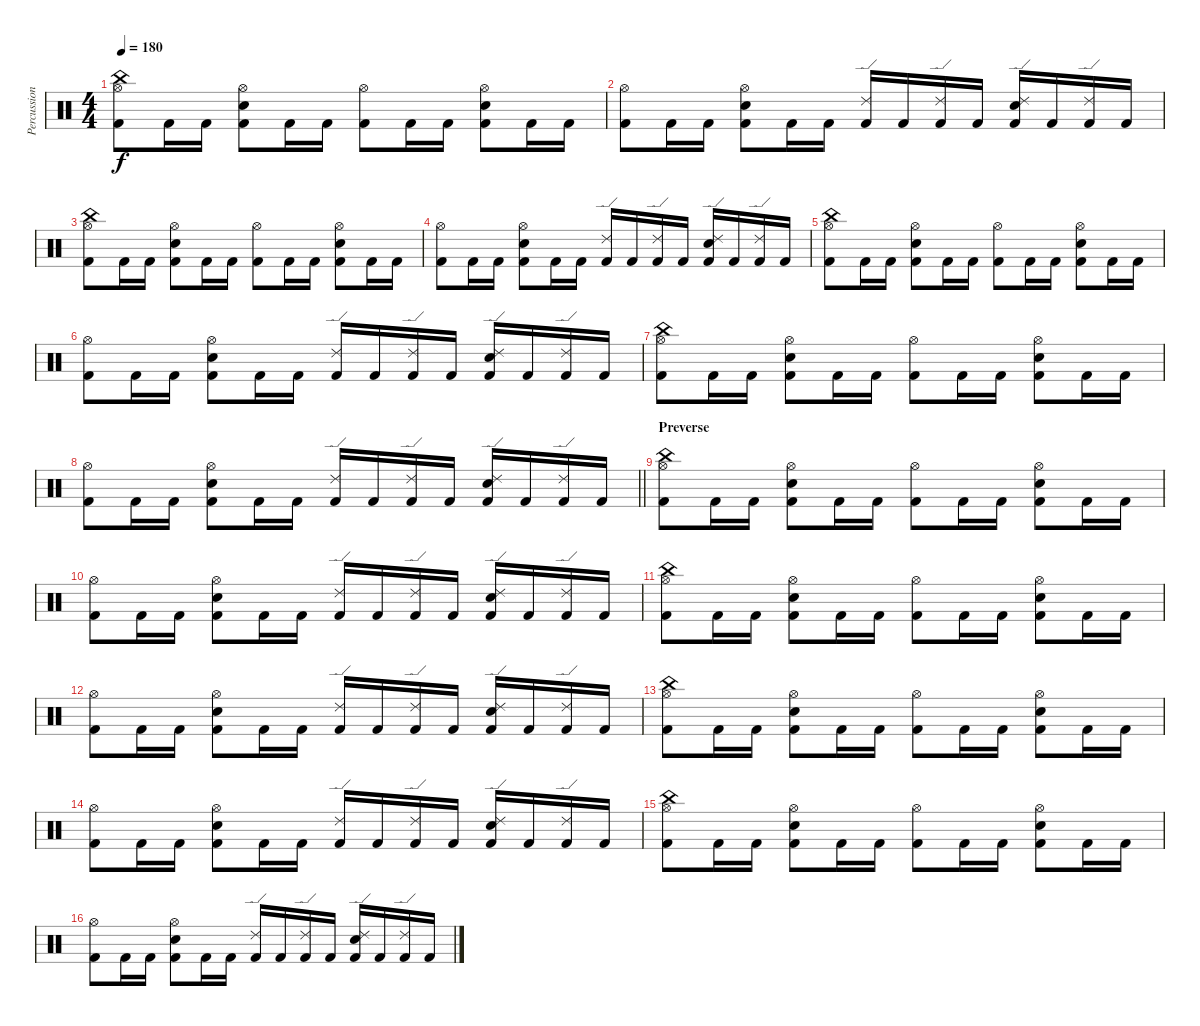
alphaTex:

\track ("Percussion" "Percussion") {instrument percussion}
\staff {score}
\articulation defaults
\ts (4 4)
\tempo 180
\clef neutral
\ks c
("China (hit)" "Hi-Hat (open)" "Kick (hit) 2").8{dy f} "Kick (hit) 2".16 "Kick (hit) 2".16 ("Hi-Hat (open)" "Snare (hit) 2" "Kick (hit) 2").8 "Kick (hit) 2".16 "Kick (hit) 2".16 ("Hi-Hat (open)" "Kick (hit) 2").8 "Kick (hit) 2".16 "Kick (hit) 2".16 ("Hi-Hat (open)" "Snare (hit) 2" "Kick (hit) 2").8 "Kick (hit) 2".16 "Kick (hit) 2".16 |
("Hi-Hat (open)" "Kick (hit) 2").8 "Kick (hit) 2".16 "Kick (hit) 2".16 ("Hi-Hat (open)" "Snare (hit) 2" "Kick (hit) 2").8 "Kick (hit) 2".16 "Kick (hit) 2".16 ("Ride (edge) 2" "Kick (hit) 2").16 "Kick (hit) 2".16 ("Ride (edge) 2" "Kick (hit) 2").16 "Kick (hit) 2".16 ("Ride (edge) 2" "Snare (hit) 2" "Kick (hit) 2").16 "Kick (hit) 2".16 ("Ride (edge) 2" "Kick (hit) 2").16 "Kick (hit) 2".16 |
("China (hit)" "Hi-Hat (open)" "Kick (hit) 2").8 "Kick (hit) 2".16 "Kick (hit) 2".16 ("Hi-Hat (open)" "Snare (hit) 2" "Kick (hit) 2").8 "Kick (hit) 2".16 "Kick (hit) 2".16 ("Hi-Hat (open)" "Kick (hit) 2").8 "Kick (hit) 2".16 "Kick (hit) 2".16 ("Hi-Hat (open)" "Snare (hit) 2" "Kick (hit) 2").8 "Kick (hit) 2".16 "Kick (hit) 2".16 |
("Hi-Hat (open)" "Kick (hit) 2").8 "Kick (hit) 2".16 "Kick (hit) 2".16 ("Hi-Hat (open)" "Snare (hit) 2" "Kick (hit) 2").8 "Kick (hit) 2".16 "Kick (hit) 2".16 ("Ride (edge) 2" "Kick (hit) 2").16 "Kick (hit) 2".16 ("Ride (edge) 2" "Kick (hit) 2").16 "Kick (hit) 2".16 ("Ride (edge) 2" "Snare (hit) 2" "Kick (hit) 2").16 "Kick (hit) 2".16 ("Ride (edge) 2" "Kick (hit) 2").16 "Kick (hit) 2".16 |
("China (hit)" "Hi-Hat (open)" "Kick (hit) 2").8 "Kick (hit) 2".16 "Kick (hit) 2".16 ("Hi-Hat (open)" "Snare (hit) 2" "Kick (hit) 2").8 "Kick (hit) 2".16 "Kick (hit) 2".16 ("Hi-Hat (open)" "Kick (hit) 2").8 "Kick (hit) 2".16 "Kick (hit) 2".16 ("Hi-Hat (open)" "Snare (hit) 2" "Kick (hit) 2").8 "Kick (hit) 2".16 "Kick (hit) 2".16 |
("Hi-Hat (open)" "Kick (hit) 2").8 "Kick (hit) 2".16 "Kick (hit) 2".16 ("Hi-Hat (open)" "Snare (hit) 2" "Kick (hit) 2").8 "Kick (hit) 2".16 "Kick (hit) 2".16 ("Ride (edge) 2" "Kick (hit) 2").16 "Kick (hit) 2".16 ("Ride (edge) 2" "Kick (hit) 2").16 "Kick (hit) 2".16 ("Ride (edge) 2" "Snare (hit) 2" "Kick (hit) 2").16 "Kick (hit) 2".16 ("Ride (edge) 2" "Kick (hit) 2").16 "Kick (hit) 2".16 |
("China (hit)" "Hi-Hat (open)" "Kick (hit) 2").8 "Kick (hit) 2".16 "Kick (hit) 2".16 ("Hi-Hat (open)" "Snare (hit) 2" "Kick (hit) 2").8 "Kick (hit) 2".16 "Kick (hit) 2".16 ("Hi-Hat (open)" "Kick (hit) 2").8 "Kick (hit) 2".16 "Kick (hit) 2".16 ("Hi-Hat (open)" "Snare (hit) 2" "Kick (hit) 2").8 "Kick (hit) 2".16 "Kick (hit) 2".16 |
\barLineRight lightlight
("Hi-Hat (open)" "Kick (hit) 2").8 "Kick (hit) 2".16 "Kick (hit) 2".16 ("Hi-Hat (open)" "Snare (hit) 2" "Kick (hit) 2").8 "Kick (hit) 2".16 "Kick (hit) 2".16 ("Ride (edge) 2" "Kick (hit) 2").16 "Kick (hit) 2".16 ("Ride (edge) 2" "Kick (hit) 2").16 "Kick (hit) 2".16 ("Ride (edge) 2" "Snare (hit) 2" "Kick (hit) 2").16 "Kick (hit) 2".16 ("Ride (edge) 2" "Kick (hit) 2").16 "Kick (hit) 2".16 |
\section ("" "Preverse")
("China (hit)" "Hi-Hat (open)" "Kick (hit) 2").8 "Kick (hit) 2".16 "Kick (hit) 2".16 ("Hi-Hat (open)" "Snare (hit) 2" "Kick (hit) 2").8 "Kick (hit) 2".16 "Kick (hit) 2".16 ("Hi-Hat (open)" "Kick (hit) 2").8 "Kick (hit) 2".16 "Kick (hit) 2".16 ("Hi-Hat (open)" "Snare (hit) 2" "Kick (hit) 2").8 "Kick (hit) 2".16 "Kick (hit) 2".16 |
("Hi-Hat (open)" "Kick (hit) 2").8 "Kick (hit) 2".16 "Kick (hit) 2".16 ("Hi-Hat (open)" "Snare (hit) 2" "Kick (hit) 2").8 "Kick (hit) 2".16 "Kick (hit) 2".16 ("Ride (edge) 2" "Kick (hit) 2").16 "Kick (hit) 2".16 ("Ride (edge) 2" "Kick (hit) 2").16 "Kick (hit) 2".16 ("Ride (edge) 2" "Snare (hit) 2" "Kick (hit) 2").16 "Kick (hit) 2".16 ("Ride (edge) 2" "Kick (hit) 2").16 "Kick (hit) 2".16 |
("China (hit)" "Hi-Hat (open)" "Kick (hit) 2").8 "Kick (hit) 2".16 "Kick (hit) 2".16 ("Hi-Hat (open)" "Snare (hit) 2" "Kick (hit) 2").8 "Kick (hit) 2".16 "Kick (hit) 2".16 ("Hi-Hat (open)" "Kick (hit) 2").8 "Kick (hit) 2".16 "Kick (hit) 2".16 ("Hi-Hat (open)" "Snare (hit) 2" "Kick (hit) 2").8 "Kick (hit) 2".16 "Kick (hit) 2".16 |
("Hi-Hat (open)" "Kick (hit) 2").8 "Kick (hit) 2".16 "Kick (hit) 2".16 ("Hi-Hat (open)" "Snare (hit) 2" "Kick (hit) 2").8 "Kick (hit) 2".16 "Kick (hit) 2".16 ("Ride (edge) 2" "Kick (hit) 2").16 "Kick (hit) 2".16 ("Ride (edge) 2" "Kick (hit) 2").16 "Kick (hit) 2".16 ("Ride (edge) 2" "Snare (hit) 2" "Kick (hit) 2").16 "Kick (hit) 2".16 ("Ride (edge) 2" "Kick (hit) 2").16 "Kick (hit) 2".16 |
("China (hit)" "Hi-Hat (open)" "Kick (hit) 2").8 "Kick (hit) 2".16 "Kick (hit) 2".16 ("Hi-Hat (open)" "Snare (hit) 2" "Kick (hit) 2").8 "Kick (hit) 2".16 "Kick (hit) 2".16 ("Hi-Hat (open)" "Kick (hit) 2").8 "Kick (hit) 2".16 "Kick (hit) 2".16 ("Hi-Hat (open)" "Snare (hit) 2" "Kick (hit) 2").8 "Kick (hit) 2".16 "Kick (hit) 2".16 |
("Hi-Hat (open)" "Kick (hit) 2").8 "Kick (hit) 2".16 "Kick (hit) 2".16 ("Hi-Hat (open)" "Snare (hit) 2" "Kick (hit) 2").8 "Kick (hit) 2".16 "Kick (hit) 2".16 ("Ride (edge) 2" "Kick (hit) 2").16 "Kick (hit) 2".16 ("Ride (edge) 2" "Kick (hit) 2").16 "Kick (hit) 2".16 ("Ride (edge) 2" "Snare (hit) 2" "Kick (hit) 2").16 "Kick (hit) 2".16 ("Ride (edge) 2" "Kick (hit) 2").16 "Kick (hit) 2".16 |
("China (hit)" "Hi-Hat (open)" "Kick (hit) 2").8 "Kick (hit) 2".16 "Kick (hit) 2".16 ("Hi-Hat (open)" "Snare (hit) 2" "Kick (hit) 2").8 "Kick (hit) 2".16 "Kick (hit) 2".16 ("Hi-Hat (open)" "Kick (hit) 2").8 "Kick (hit) 2".16 "Kick (hit) 2".16 ("Hi-Hat (open)" "Snare (hit) 2" "Kick (hit) 2").8 "Kick (hit) 2".16 "Kick (hit) 2".16 |
("Hi-Hat (open)" "Kick (hit) 2").8 "Kick (hit) 2".16 "Kick (hit) 2".16 ("Hi-Hat (open)" "Snare (hit) 2" "Kick (hit) 2").8 "Kick (hit) 2".16 "Kick (hit) 2".16 ("Ride (edge) 2" "Kick (hit) 2").16 "Kick (hit) 2".16 ("Ride (edge) 2" "Kick (hit) 2").16 "Kick (hit) 2".16 ("Ride (edge) 2" "Snare (hit) 2" "Kick (hit) 2").16 "Kick (hit) 2".16 ("Ride (edge) 2" "Kick (hit) 2").16 "Kick (hit) 2".16
